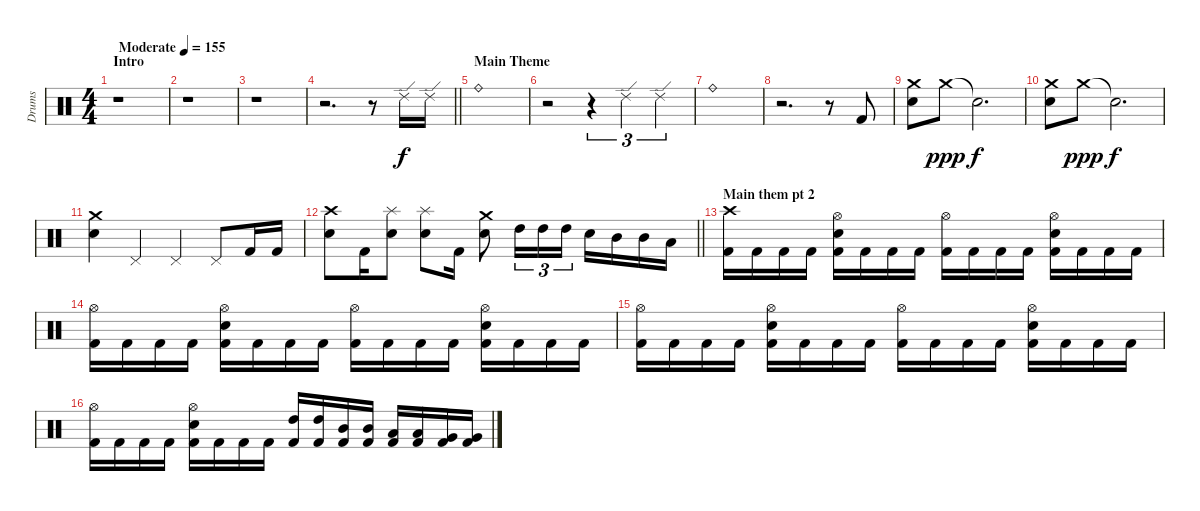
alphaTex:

\track ("Drums" "Drums") {instrument percussion}
\staff {score}
\articulation defaults
\ts (4 4)
\section ("" "Intro")
\tempo (155 "Moderate")
\clef neutral
\ks c
r.1{dy f} |
r.1 |
r.1 |
\barLineRight lightlight
r.2{d} r.8 "Ride (edge) 2".16 "Ride (edge) 2".16 |
\section ("" "Main Theme")
"Ride (bell)".1 |
r.2 r.4{tu (3 2)} "Ride (edge) 2".4{tu (3 2)} "Ride (edge) 2".4{tu (3 2)} |
"Ride (bell)".1 |
r.2{d} r.8 "Kick (hit) 2".8 |
("Crash medium (hit)" "Electric Snare (hit)").8 "Crash medium (hit)".8{dy ppp} "Snare (hit)"{t}.2{d dy f} |
("Crash medium (hit)" "Electric Snare (hit)").8 "Crash medium (hit)".8{dy ppp} "Snare (hit)"{t}.2{d dy f} |
("Crash medium (hit)" "Electric Snare (hit)").4 "Pedal Hi-Hat (hit)".4 "Pedal Hi-Hat (hit)".4 "Pedal Hi-Hat (hit)".8 "Kick (hit) 2".16 "Kick (hit) 2".16 |
\barLineRight lightlight
("Crash high (hit)" "Electric Snare (hit)").8 "Kick (hit) 2".16 ("Splash (hit)" "Electric Snare (hit)").8 ("Splash (hit)" "Electric Snare (hit)").8 "Kick (hit) 2".16 ("Crash medium (hit)" "Electric Snare (hit)").8 "High Tom (hit)".16{tu (3 2)} "High Tom (hit)".16{tu (3 2)} "High Tom (hit)".16{tu (3 2)} "Electric Snare (hit)".16 "Mid Tom (hit)".16 "Mid Tom (hit)".16 "Low Tom (hit)".16 |
\section ("" "Main them pt 2")
("Crash high (hit)" "Kick (hit) 2").16 "Kick (hit) 2".16 "Kick (hit) 2".16 "Kick (hit) 2".16 ("Hi-Hat (open)" "Electric Snare (hit)" "Kick (hit) 2").16 "Kick (hit) 2".16 "Kick (hit) 2".16 "Kick (hit) 2".16 ("Hi-Hat (open)" "Kick (hit) 2").16 "Kick (hit) 2".16 "Kick (hit) 2".16 "Kick (hit) 2".16 ("Hi-Hat (open)" "Electric Snare (hit)" "Kick (hit) 2").16 "Kick (hit) 2".16 "Kick (hit) 2".16 "Kick (hit) 2".16 |
("Hi-Hat (open)" "Kick (hit) 2").16 "Kick (hit) 2".16 "Kick (hit) 2".16 "Kick (hit) 2".16 ("Hi-Hat (open)" "Electric Snare (hit)" "Kick (hit) 2").16 "Kick (hit) 2".16 "Kick (hit) 2".16 "Kick (hit) 2".16 ("Hi-Hat (open)" "Kick (hit) 2").16 "Kick (hit) 2".16 "Kick (hit) 2".16 "Kick (hit) 2".16 ("Hi-Hat (open)" "Electric Snare (hit)" "Kick (hit) 2").16 "Kick (hit) 2".16 "Kick (hit) 2".16 "Kick (hit) 2".16 |
("Hi-Hat (open)" "Kick (hit) 2").16 "Kick (hit) 2".16 "Kick (hit) 2".16 "Kick (hit) 2".16 ("Hi-Hat (open)" "Electric Snare (hit)" "Kick (hit) 2").16 "Kick (hit) 2".16 "Kick (hit) 2".16 "Kick (hit) 2".16 ("Hi-Hat (open)" "Kick (hit) 2").16 "Kick (hit) 2".16 "Kick (hit) 2".16 "Kick (hit) 2".16 ("Hi-Hat (open)" "Electric Snare (hit)" "Kick (hit) 2").16 "Kick (hit) 2".16 "Kick (hit) 2".16 "Kick (hit) 2".16 |
("Hi-Hat (open)" "Kick (hit) 2").16 "Kick (hit) 2".16 "Kick (hit) 2".16 "Kick (hit) 2".16 ("Hi-Hat (open)" "Electric Snare (hit)" "Kick (hit) 2").16 "Kick (hit) 2".16 "Kick (hit) 2".16 "Kick (hit) 2".16 ("High Tom (hit)" "Kick (hit) 2").16 ("High Tom (hit)" "Kick (hit) 2").16 ("Mid Tom (hit)" "Kick (hit) 2").16 ("Mid Tom (hit)" "Kick (hit) 2").16 ("Low Tom (hit)" "Kick (hit) 2").16 ("Low Tom (hit)" "Kick (hit) 2").16 ("Very Low Tom (hit)" "Kick (hit) 2").16 ("Very Low Tom (hit)" "Kick (hit) 2").16
